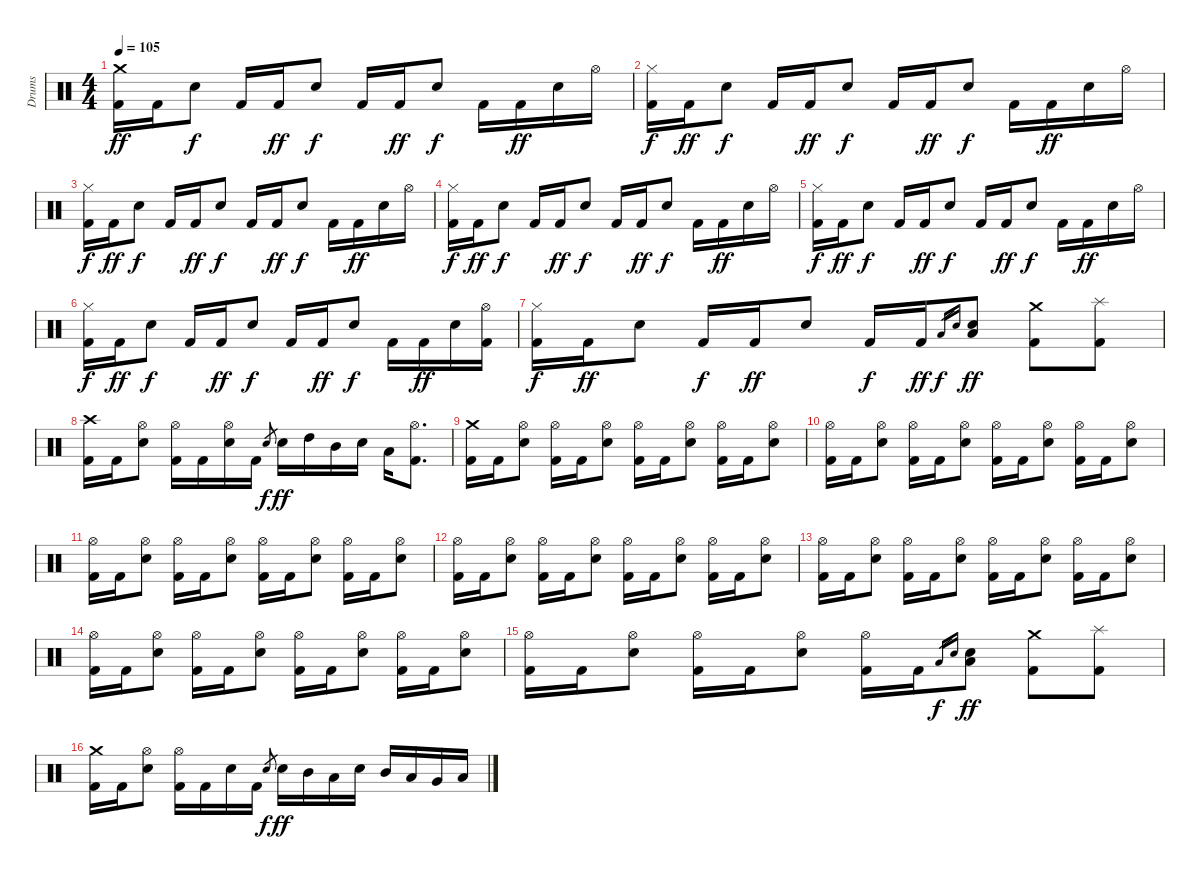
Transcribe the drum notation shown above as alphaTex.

\track ("Drums" "Drums") {instrument percussion}
\staff {score}
\articulation defaults
\ts (4 4)
\tempo 105
\clef neutral
\ks c
("Crash medium (hit)" "Kick (hit) 2").16{dy ff} "Kick (hit) 2".16 "Electric Snare (hit)".8{dy f} "Kick (hit) 2".16 "Kick (hit) 2".16{dy ff} "Electric Snare (hit)".8{dy f} "Kick (hit) 2".16 "Kick (hit) 2".16{dy ff} "Electric Snare (hit)".8{dy f} "Kick (hit) 2".16 "Kick (hit) 2".16{dy ff} "Electric Snare (hit)".16 "Hi-Hat (open)".16 |
("Hi-Hat (closed)" "Kick (hit) 2").16{dy f} "Kick (hit) 2".16{dy ff} "Electric Snare (hit)".8{dy f} "Kick (hit) 2".16 "Kick (hit) 2".16{dy ff} "Electric Snare (hit)".8{dy f} "Kick (hit) 2".16 "Kick (hit) 2".16{dy ff} "Electric Snare (hit)".8{dy f} "Kick (hit) 2".16 "Kick (hit) 2".16{dy ff} "Electric Snare (hit)".16 "Hi-Hat (open)".16 |
("Hi-Hat (closed)" "Kick (hit) 2").16{dy f} "Kick (hit) 2".16{dy ff} "Electric Snare (hit)".8{dy f} "Kick (hit) 2".16 "Kick (hit) 2".16{dy ff} "Electric Snare (hit)".8{dy f} "Kick (hit) 2".16 "Kick (hit) 2".16{dy ff} "Electric Snare (hit)".8{dy f} "Kick (hit) 2".16 "Kick (hit) 2".16{dy ff} "Electric Snare (hit)".16 "Hi-Hat (open)".16 |
("Hi-Hat (closed)" "Kick (hit) 2").16{dy f} "Kick (hit) 2".16{dy ff} "Electric Snare (hit)".8{dy f} "Kick (hit) 2".16 "Kick (hit) 2".16{dy ff} "Electric Snare (hit)".8{dy f} "Kick (hit) 2".16 "Kick (hit) 2".16{dy ff} "Electric Snare (hit)".8{dy f} "Kick (hit) 2".16 "Kick (hit) 2".16{dy ff} "Electric Snare (hit)".16 "Hi-Hat (open)".16 |
("Hi-Hat (closed)" "Kick (hit) 2").16{dy f} "Kick (hit) 2".16{dy ff} "Electric Snare (hit)".8{dy f} "Kick (hit) 2".16 "Kick (hit) 2".16{dy ff} "Electric Snare (hit)".8{dy f} "Kick (hit) 2".16 "Kick (hit) 2".16{dy ff} "Electric Snare (hit)".8{dy f} "Kick (hit) 2".16 "Kick (hit) 2".16{dy ff} "Electric Snare (hit)".16 "Hi-Hat (open)".16 |
("Hi-Hat (closed)" "Kick (hit) 2").16{dy f} "Kick (hit) 2".16{dy ff} "Electric Snare (hit)".8{dy f} "Kick (hit) 2".16 "Kick (hit) 2".16{dy ff} "Electric Snare (hit)".8{dy f} "Kick (hit) 2".16 "Kick (hit) 2".16{dy ff} "Electric Snare (hit)".8{dy f} "Kick (hit) 2".16 "Kick (hit) 2".16{dy ff} "Electric Snare (hit)".16 ("Hi-Hat (open)" "Kick (hit) 2").16 |
("Hi-Hat (closed)" "Kick (hit) 2").16{dy f} "Kick (hit) 2".16{dy ff} "Electric Snare (hit)".8 "Kick (hit) 2".16{dy f} "Kick (hit) 2".16{dy ff} "Electric Snare (hit)".8 "Kick (hit) 2".16{dy f} "Kick (hit) 2".16{dy ff} "Low Tom (hit)".16{gr dy f} "Electric Snare (hit)".16{gr} ("Low Tom (hit)" "Electric Snare (hit)").8{dy ff} ("Crash medium (hit)" "Kick (hit) 2").8 ("Splash (hit)" "Kick (hit) 2").8 |
("Crash high (hit)" "Kick (hit) 2").16 "Kick (hit) 2".16 ("Hi-Hat (open)" "Electric Snare (hit)").8 ("Hi-Hat (open)" "Kick (hit) 2").16 "Kick (hit) 2".16 ("Hi-Hat (open)" "Electric Snare (hit)").16 "Kick (hit) 2".16 "Electric Snare (hit)".8{gr dy f} "Electric Snare (hit)".16{dy ff} "High Tom (hit)".16 "Mid Tom (hit)".16 "Electric Snare (hit)".16 "Low Tom (hit)".16 ("Hi-Hat (open)" "Kick (hit) 2").8{d} |
("Crash medium (hit)" "Kick (hit) 2").16 "Kick (hit) 2".16 ("Hi-Hat (open)" "Electric Snare (hit)").8 ("Hi-Hat (open)" "Kick (hit) 2").16 "Kick (hit) 2".16 ("Hi-Hat (open)" "Electric Snare (hit)").8 ("Hi-Hat (open)" "Kick (hit) 2").16 "Kick (hit) 2".16 ("Hi-Hat (open)" "Electric Snare (hit)").8 ("Hi-Hat (open)" "Kick (hit) 2").16 "Kick (hit) 2".16 ("Hi-Hat (open)" "Electric Snare (hit)").8 |
("Hi-Hat (open)" "Kick (hit) 2").16 "Kick (hit) 2".16 ("Hi-Hat (open)" "Electric Snare (hit)").8 ("Hi-Hat (open)" "Kick (hit) 2").16 "Kick (hit) 2".16 ("Hi-Hat (open)" "Electric Snare (hit)").8 ("Hi-Hat (open)" "Kick (hit) 2").16 "Kick (hit) 2".16 ("Hi-Hat (open)" "Electric Snare (hit)").8 ("Hi-Hat (open)" "Kick (hit) 2").16 "Kick (hit) 2".16 ("Hi-Hat (open)" "Electric Snare (hit)").8 |
("Hi-Hat (open)" "Kick (hit) 2").16 "Kick (hit) 2".16 ("Hi-Hat (open)" "Electric Snare (hit)").8 ("Hi-Hat (open)" "Kick (hit) 2").16 "Kick (hit) 2".16 ("Hi-Hat (open)" "Electric Snare (hit)").8 ("Hi-Hat (open)" "Kick (hit) 2").16 "Kick (hit) 2".16 ("Hi-Hat (open)" "Electric Snare (hit)").8 ("Hi-Hat (open)" "Kick (hit) 2").16 "Kick (hit) 2".16 ("Hi-Hat (open)" "Electric Snare (hit)").8 |
("Hi-Hat (open)" "Kick (hit) 2").16 "Kick (hit) 2".16 ("Hi-Hat (open)" "Electric Snare (hit)").8 ("Hi-Hat (open)" "Kick (hit) 2").16 "Kick (hit) 2".16 ("Hi-Hat (open)" "Electric Snare (hit)").8 ("Hi-Hat (open)" "Kick (hit) 2").16 "Kick (hit) 2".16 ("Hi-Hat (open)" "Electric Snare (hit)").8 ("Hi-Hat (open)" "Kick (hit) 2").16 "Kick (hit) 2".16 ("Hi-Hat (open)" "Electric Snare (hit)").8 |
("Hi-Hat (open)" "Kick (hit) 2").16 "Kick (hit) 2".16 ("Hi-Hat (open)" "Electric Snare (hit)").8 ("Hi-Hat (open)" "Kick (hit) 2").16 "Kick (hit) 2".16 ("Hi-Hat (open)" "Electric Snare (hit)").8 ("Hi-Hat (open)" "Kick (hit) 2").16 "Kick (hit) 2".16 ("Hi-Hat (open)" "Electric Snare (hit)").8 ("Hi-Hat (open)" "Kick (hit) 2").16 "Kick (hit) 2".16 ("Hi-Hat (open)" "Electric Snare (hit)").8 |
("Hi-Hat (open)" "Kick (hit) 2").16 "Kick (hit) 2".16 ("Hi-Hat (open)" "Electric Snare (hit)").8 ("Hi-Hat (open)" "Kick (hit) 2").16 "Kick (hit) 2".16 ("Hi-Hat (open)" "Electric Snare (hit)").8 ("Hi-Hat (open)" "Kick (hit) 2").16 "Kick (hit) 2".16 ("Hi-Hat (open)" "Electric Snare (hit)").8 ("Hi-Hat (open)" "Kick (hit) 2").16 "Kick (hit) 2".16 ("Hi-Hat (open)" "Electric Snare (hit)").8 |
("Hi-Hat (open)" "Kick (hit) 2").16 "Kick (hit) 2".16 ("Hi-Hat (open)" "Electric Snare (hit)").8 ("Hi-Hat (open)" "Kick (hit) 2").16 "Kick (hit) 2".16 ("Hi-Hat (open)" "Electric Snare (hit)").8 ("Hi-Hat (open)" "Kick (hit) 2").16 "Kick (hit) 2".16 "Low Tom (hit)".16{gr dy f} "Electric Snare (hit)".16{gr} ("Low Tom (hit)" "Electric Snare (hit)").8{dy ff} ("Crash medium (hit)" "Kick (hit) 2").8 ("Splash (hit)" "Kick (hit) 2").8 |
("Crash medium (hit)" "Kick (hit) 2").16 "Kick (hit) 2".16 ("Hi-Hat (open)" "Electric Snare (hit)").8 ("Hi-Hat (open)" "Kick (hit) 2").16 "Kick (hit) 2".16 "Electric Snare (hit)".16 "Kick (hit) 2".16 "Electric Snare (hit)".8{gr dy f} "Electric Snare (hit)".16{dy ff} "Mid Tom (hit)".16 "Low Tom (hit)".16 "Electric Snare (hit)".16 "Mid Tom (hit)".16 "Low Tom (hit)".16 "Very Low Tom (hit)".16 "Low Floor Tom (hit)".16
